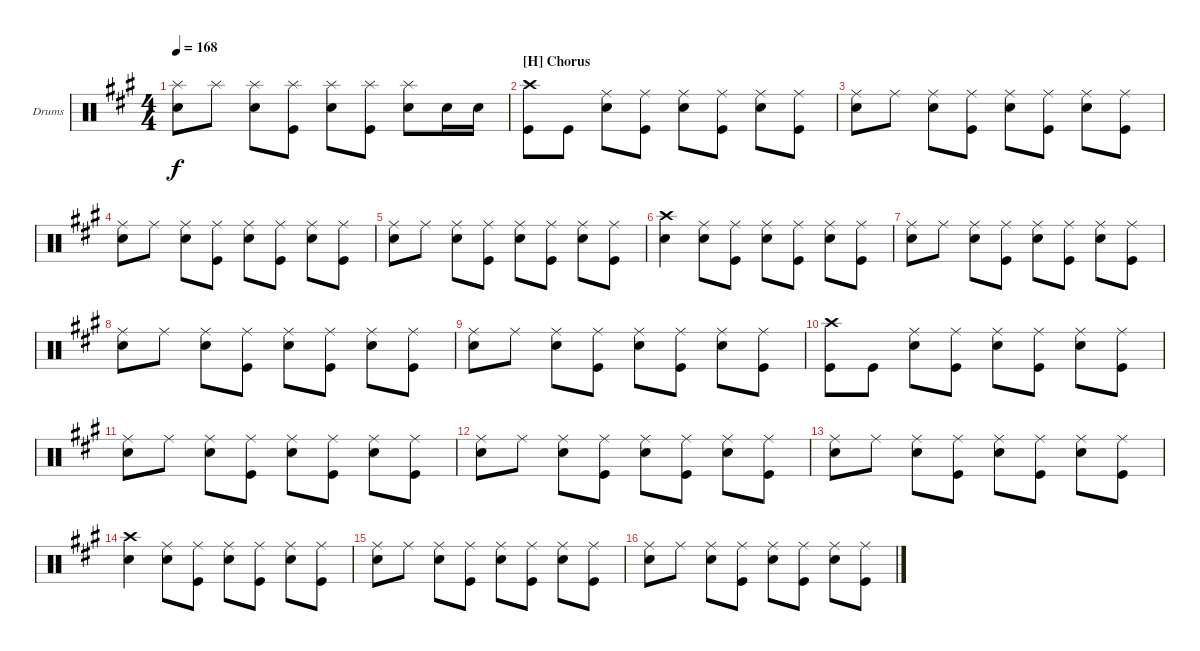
\defaultSystemsLayout 4
\bracketExtendMode groupsimilarinstruments
\firstSystemTrackNameOrientation horizontal
\otherSystemsTrackNameOrientation horizontal
\track ("Drumkit" "Drums") {instrument percussion}
\staff {score}
\articulation defaults
\ts (4 4)
\tempo 168
\clef neutral
\scale
1.05801
\ks a
("Splash (hit)" "Snare (hit) 2").8{dy f} "Splash (hit)".8 ("Splash (hit)" "Snare (hit) 2").8 ("Splash (hit)" "Kick (hit)").8 ("Splash (hit)" "Snare (hit) 2").8 ("Splash (hit)" "Kick (hit)").8 ("Splash (hit)" "Snare (hit) 2").8 "Snare (hit) 2".16 "Snare (hit) 2".16 |
\section ("H" "Chorus")
\scale
0.941992 ("Crash high (hit)" "Kick (hit)").8 "Kick (hit)".8 ("Ride (middle)" "Snare (hit) 2").8 ("Ride (middle)" "Kick (hit)").8 ("Ride (middle)" "Snare (hit) 2").8 ("Ride (middle)" "Kick (hit)").8 ("Ride (middle)" "Snare (hit) 2").8 ("Ride (middle)" "Kick (hit)").8 |
\scale
1.05801 ("Ride (middle)" "Snare (hit) 2").8 "Ride (middle)".8 ("Ride (middle)" "Snare (hit) 2").8 ("Ride (middle)" "Kick (hit)").8 ("Ride (middle)" "Snare (hit) 2").8 ("Ride (middle)" "Kick (hit)").8 ("Ride (middle)" "Snare (hit) 2").8 ("Ride (middle)" "Kick (hit)").8 |
\scale
0.941992 ("Ride (middle)" "Snare (hit) 2").8 "Ride (middle)".8 ("Ride (middle)" "Snare (hit) 2").8 ("Ride (middle)" "Kick (hit)").8 ("Ride (middle)" "Snare (hit) 2").8 ("Ride (middle)" "Kick (hit)").8 ("Ride (middle)" "Snare (hit) 2").8 ("Ride (middle)" "Kick (hit)").8 |
\scale
1.05801 ("Ride (middle)" "Snare (hit) 2").8 "Ride (middle)".8 ("Ride (middle)" "Snare (hit) 2").8 ("Ride (middle)" "Kick (hit)").8 ("Ride (middle)" "Snare (hit) 2").8 ("Ride (middle)" "Kick (hit)").8 ("Ride (middle)" "Snare (hit) 2").8 ("Ride (middle)" "Kick (hit)").8 |
\scale
0.941992 ("Crash high (hit)" "Snare (hit) 2").4 ("Ride (middle)" "Snare (hit) 2").8 ("Ride (middle)" "Kick (hit)").8 ("Ride (middle)" "Snare (hit) 2").8 ("Ride (middle)" "Kick (hit)").8 ("Ride (middle)" "Snare (hit) 2").8 ("Ride (middle)" "Kick (hit)").8 |
\scale
1.05801 ("Ride (middle)" "Snare (hit) 2").8 "Ride (middle)".8 ("Ride (middle)" "Snare (hit) 2").8 ("Ride (middle)" "Kick (hit)").8 ("Ride (middle)" "Snare (hit) 2").8 ("Ride (middle)" "Kick (hit)").8 ("Ride (middle)" "Snare (hit) 2").8 ("Ride (middle)" "Kick (hit)").8 |
\scale
0.941992 ("Ride (middle)" "Snare (hit) 2").8 "Ride (middle)".8 ("Ride (middle)" "Snare (hit) 2").8 ("Ride (middle)" "Kick (hit)").8 ("Ride (middle)" "Snare (hit) 2").8 ("Ride (middle)" "Kick (hit)").8 ("Ride (middle)" "Snare (hit) 2").8 ("Ride (middle)" "Kick (hit)").8 |
\scale
1.05801 ("Ride (middle)" "Snare (hit) 2").8 "Ride (middle)".8 ("Ride (middle)" "Snare (hit) 2").8 ("Ride (middle)" "Kick (hit)").8 ("Ride (middle)" "Snare (hit) 2").8 ("Ride (middle)" "Kick (hit)").8 ("Ride (middle)" "Snare (hit) 2").8 ("Ride (middle)" "Kick (hit)").8 |
\scale
0.941992 ("Crash high (hit)" "Kick (hit)").8 "Kick (hit)".8 ("Ride (middle)" "Snare (hit) 2").8 ("Ride (middle)" "Kick (hit)").8 ("Ride (middle)" "Snare (hit) 2").8 ("Ride (middle)" "Kick (hit)").8 ("Ride (middle)" "Snare (hit) 2").8 ("Ride (middle)" "Kick (hit)").8 |
\scale
1.05801 ("Ride (middle)" "Snare (hit) 2").8 "Ride (middle)".8 ("Ride (middle)" "Snare (hit) 2").8 ("Ride (middle)" "Kick (hit)").8 ("Ride (middle)" "Snare (hit) 2").8 ("Ride (middle)" "Kick (hit)").8 ("Ride (middle)" "Snare (hit) 2").8 ("Ride (middle)" "Kick (hit)").8 |
\scale
0.941992 ("Ride (middle)" "Snare (hit) 2").8 "Ride (middle)".8 ("Ride (middle)" "Snare (hit) 2").8 ("Ride (middle)" "Kick (hit)").8 ("Ride (middle)" "Snare (hit) 2").8 ("Ride (middle)" "Kick (hit)").8 ("Ride (middle)" "Snare (hit) 2").8 ("Ride (middle)" "Kick (hit)").8 |
\scale
1.05801 ("Ride (middle)" "Snare (hit) 2").8 "Ride (middle)".8 ("Ride (middle)" "Snare (hit) 2").8 ("Ride (middle)" "Kick (hit)").8 ("Ride (middle)" "Snare (hit) 2").8 ("Ride (middle)" "Kick (hit)").8 ("Ride (middle)" "Snare (hit) 2").8 ("Ride (middle)" "Kick (hit)").8 |
\scale
0.941992 ("Crash high (hit)" "Snare (hit) 2").4 ("Ride (middle)" "Snare (hit) 2").8 ("Ride (middle)" "Kick (hit)").8 ("Ride (middle)" "Snare (hit) 2").8 ("Ride (middle)" "Kick (hit)").8 ("Ride (middle)" "Snare (hit) 2").8 ("Ride (middle)" "Kick (hit)").8 |
\scale
1.05801 ("Ride (middle)" "Snare (hit) 2").8 "Ride (middle)".8 ("Ride (middle)" "Snare (hit) 2").8 ("Ride (middle)" "Kick (hit)").8 ("Ride (middle)" "Snare (hit) 2").8 ("Ride (middle)" "Kick (hit)").8 ("Ride (middle)" "Snare (hit) 2").8 ("Ride (middle)" "Kick (hit)").8 |
\scale
0.941992 ("Ride (middle)" "Snare (hit) 2").8 "Ride (middle)".8 ("Ride (middle)" "Snare (hit) 2").8 ("Ride (middle)" "Kick (hit)").8 ("Ride (middle)" "Snare (hit) 2").8 ("Ride (middle)" "Kick (hit)").8 ("Ride (middle)" "Snare (hit) 2").8 ("Ride (middle)" "Kick (hit)").8
